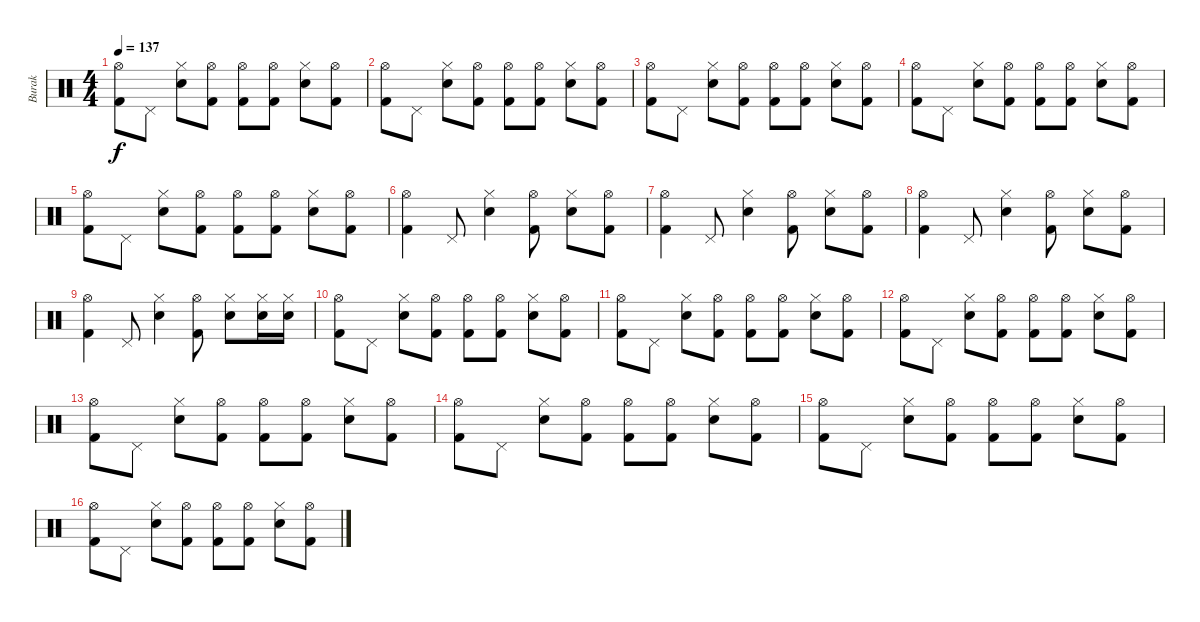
\track ("Burak" "Burak") {instrument percussion}
\staff {score}
\articulation defaults
\ts (4 4)
\tempo 137
\clef neutral
\ks c
("Kick (hit) 2" "Hi-Hat (open)").8{dy f} "Pedal Hi-Hat (hit)".8 ("Electric Snare (hit)" "Hi-Hat (closed)").8 ("Kick (hit) 2" "Hi-Hat (open)").8 ("Kick (hit) 2" "Hi-Hat (open)").8 ("Kick (hit) 2" "Hi-Hat (open)").8 ("Electric Snare (hit)" "Hi-Hat (closed)").8 ("Kick (hit) 2" "Hi-Hat (open)").8 |
("Kick (hit) 2" "Hi-Hat (open)").8 "Pedal Hi-Hat (hit)".8 ("Electric Snare (hit)" "Hi-Hat (closed)").8 ("Kick (hit) 2" "Hi-Hat (open)").8 ("Kick (hit) 2" "Hi-Hat (open)").8 ("Kick (hit) 2" "Hi-Hat (open)").8 ("Electric Snare (hit)" "Hi-Hat (closed)").8 ("Kick (hit) 2" "Hi-Hat (open)").8 |
("Kick (hit) 2" "Hi-Hat (open)").8 "Pedal Hi-Hat (hit)".8 ("Electric Snare (hit)" "Hi-Hat (closed)").8 ("Kick (hit) 2" "Hi-Hat (open)").8 ("Kick (hit) 2" "Hi-Hat (open)").8 ("Kick (hit) 2" "Hi-Hat (open)").8 ("Electric Snare (hit)" "Hi-Hat (closed)").8 ("Kick (hit) 2" "Hi-Hat (open)").8 |
("Kick (hit) 2" "Hi-Hat (open)").8 "Pedal Hi-Hat (hit)".8 ("Electric Snare (hit)" "Hi-Hat (closed)").8 ("Kick (hit) 2" "Hi-Hat (open)").8 ("Kick (hit) 2" "Hi-Hat (open)").8 ("Kick (hit) 2" "Hi-Hat (open)").8 ("Electric Snare (hit)" "Hi-Hat (closed)").8 ("Kick (hit) 2" "Hi-Hat (open)").8 |
("Kick (hit) 2" "Hi-Hat (open)").8 "Pedal Hi-Hat (hit)".8 ("Electric Snare (hit)" "Hi-Hat (closed)").8 ("Kick (hit) 2" "Hi-Hat (open)").8 ("Kick (hit) 2" "Hi-Hat (open)").8 ("Kick (hit) 2" "Hi-Hat (open)").8 ("Electric Snare (hit)" "Hi-Hat (closed)").8 ("Kick (hit) 2" "Hi-Hat (open)").8 |
("Kick (hit) 2" "Hi-Hat (open)").4 "Pedal Hi-Hat (hit)".8 ("Electric Snare (hit)" "Hi-Hat (closed)").4 ("Kick (hit) 2" "Hi-Hat (open)").8 ("Electric Snare (hit)" "Hi-Hat (closed)").8 ("Kick (hit) 2" "Hi-Hat (open)").8 |
("Kick (hit) 2" "Hi-Hat (open)").4 "Pedal Hi-Hat (hit)".8 ("Electric Snare (hit)" "Hi-Hat (closed)").4 ("Kick (hit) 2" "Hi-Hat (open)").8 ("Electric Snare (hit)" "Hi-Hat (closed)").8 ("Kick (hit) 2" "Hi-Hat (open)").8 |
("Kick (hit) 2" "Hi-Hat (open)").4 "Pedal Hi-Hat (hit)".8 ("Electric Snare (hit)" "Hi-Hat (closed)").4 ("Kick (hit) 2" "Hi-Hat (open)").8 ("Electric Snare (hit)" "Hi-Hat (closed)").8 ("Kick (hit) 2" "Hi-Hat (open)").8 |
("Kick (hit) 2" "Hi-Hat (open)").4 "Pedal Hi-Hat (hit)".8 ("Electric Snare (hit)" "Hi-Hat (closed)").4 ("Kick (hit) 2" "Hi-Hat (open)").8 ("Electric Snare (hit)" "Hi-Hat (closed)").8 ("Electric Snare (hit)" "Hi-Hat (closed)").16 ("Electric Snare (hit)" "Hi-Hat (closed)").16 |
("Kick (hit) 2" "Hi-Hat (open)").8 "Pedal Hi-Hat (hit)".8 ("Electric Snare (hit)" "Hi-Hat (closed)").8 ("Kick (hit) 2" "Hi-Hat (open)").8 ("Kick (hit) 2" "Hi-Hat (open)").8 ("Kick (hit) 2" "Hi-Hat (open)").8 ("Electric Snare (hit)" "Hi-Hat (closed)").8 ("Kick (hit) 2" "Hi-Hat (open)").8 |
("Kick (hit) 2" "Hi-Hat (open)").8 "Pedal Hi-Hat (hit)".8 ("Electric Snare (hit)" "Hi-Hat (closed)").8 ("Kick (hit) 2" "Hi-Hat (open)").8 ("Kick (hit) 2" "Hi-Hat (open)").8 ("Kick (hit) 2" "Hi-Hat (open)").8 ("Electric Snare (hit)" "Hi-Hat (closed)").8 ("Kick (hit) 2" "Hi-Hat (open)").8 |
("Kick (hit) 2" "Hi-Hat (open)").8 "Pedal Hi-Hat (hit)".8 ("Electric Snare (hit)" "Hi-Hat (closed)").8 ("Kick (hit) 2" "Hi-Hat (open)").8 ("Kick (hit) 2" "Hi-Hat (open)").8 ("Kick (hit) 2" "Hi-Hat (open)").8 ("Electric Snare (hit)" "Hi-Hat (closed)").8 ("Kick (hit) 2" "Hi-Hat (open)").8 |
("Kick (hit) 2" "Hi-Hat (open)").8 "Pedal Hi-Hat (hit)".8 ("Electric Snare (hit)" "Hi-Hat (closed)").8 ("Kick (hit) 2" "Hi-Hat (open)").8 ("Kick (hit) 2" "Hi-Hat (open)").8 ("Kick (hit) 2" "Hi-Hat (open)").8 ("Electric Snare (hit)" "Hi-Hat (closed)").8 ("Kick (hit) 2" "Hi-Hat (open)").8 |
("Kick (hit) 2" "Hi-Hat (open)").8 "Pedal Hi-Hat (hit)".8 ("Electric Snare (hit)" "Hi-Hat (closed)").8 ("Kick (hit) 2" "Hi-Hat (open)").8 ("Kick (hit) 2" "Hi-Hat (open)").8 ("Kick (hit) 2" "Hi-Hat (open)").8 ("Electric Snare (hit)" "Hi-Hat (closed)").8 ("Kick (hit) 2" "Hi-Hat (open)").8 |
("Kick (hit) 2" "Hi-Hat (open)").8 "Pedal Hi-Hat (hit)".8 ("Electric Snare (hit)" "Hi-Hat (closed)").8 ("Kick (hit) 2" "Hi-Hat (open)").8 ("Kick (hit) 2" "Hi-Hat (open)").8 ("Kick (hit) 2" "Hi-Hat (open)").8 ("Electric Snare (hit)" "Hi-Hat (closed)").8 ("Kick (hit) 2" "Hi-Hat (open)").8 |
("Kick (hit) 2" "Hi-Hat (open)").8 "Pedal Hi-Hat (hit)".8 ("Electric Snare (hit)" "Hi-Hat (closed)").8 ("Kick (hit) 2" "Hi-Hat (open)").8 ("Kick (hit) 2" "Hi-Hat (open)").8 ("Kick (hit) 2" "Hi-Hat (open)").8 ("Electric Snare (hit)" "Hi-Hat (closed)").8 ("Kick (hit) 2" "Hi-Hat (open)").8
